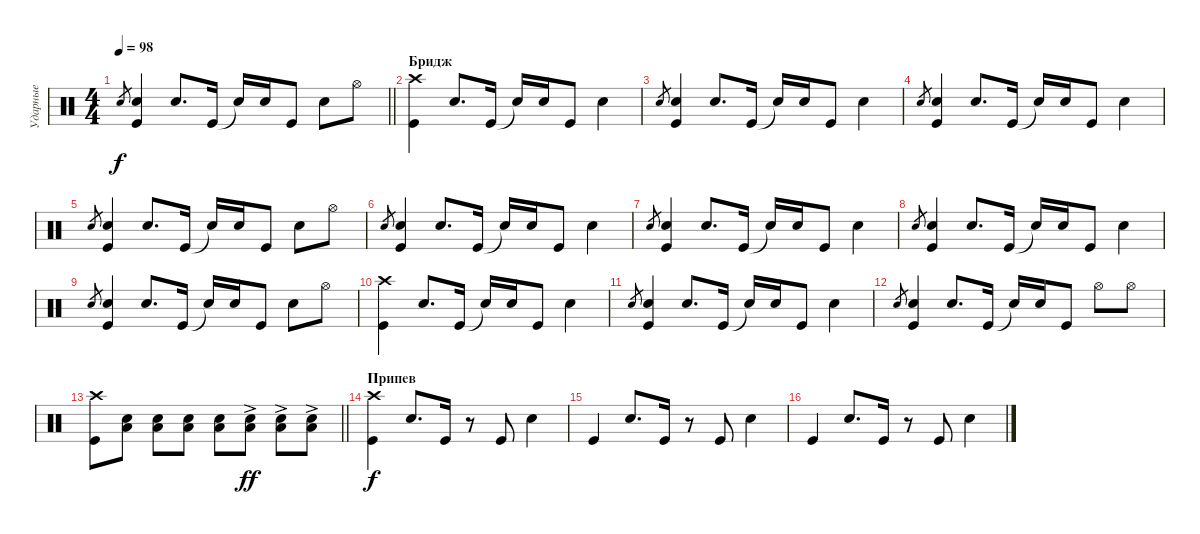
\track ("Ударные" "Ударные") {instrument percussion}
\staff {score}
\articulation defaults
\ts (4 4)
\tempo 98
\clef neutral
\barLineRight lightlight
\ks c "Snare (hit) 2"{sl x}.8{gr dy f}
("Snare (hit) 2" "Kick (hit)").4 "Snare (hit) 2".8{d} "Kick (hit)".16 "Snare (hit)"{t}.16 "Snare (hit) 2".16 "Kick (hit)".8 "Snare (hit) 2".8 "Hi-Hat (open)".8 |
\section ("" "Бридж")
("Crash high (hit)" "Kick (hit)").4 "Snare (hit) 2".8{d} "Kick (hit)".16 "Snare (hit)"{t}.16 "Snare (hit) 2".16 "Kick (hit)".8 "Snare (hit) 2".4 |
"Snare (hit) 2"{sl x}.8{gr} ("Snare (hit) 2" "Kick (hit)").4 "Snare (hit) 2".8{d} "Kick (hit)".16 "Snare (hit)"{t}.16 "Snare (hit) 2".16 "Kick (hit)".8 "Snare (hit) 2".4 |
"Snare (hit) 2"{sl x}.8{gr} ("Snare (hit) 2" "Kick (hit)").4 "Snare (hit) 2".8{d} "Kick (hit)".16 "Snare (hit)"{t}.16 "Snare (hit) 2".16 "Kick (hit)".8 "Snare (hit) 2".4 |
"Snare (hit) 2"{sl x}.8{gr} ("Snare (hit) 2" "Kick (hit)").4 "Snare (hit) 2".8{d} "Kick (hit)".16 "Snare (hit)"{t}.16 "Snare (hit) 2".16 "Kick (hit)".8 "Snare (hit) 2".8 "Hi-Hat (open)".8 |
"Snare (hit) 2"{sl x}.8{gr} ("Snare (hit) 2" "Kick (hit)").4 "Snare (hit) 2".8{d} "Kick (hit)".16 "Snare (hit)"{t}.16 "Snare (hit) 2".16 "Kick (hit)".8 "Snare (hit) 2".4 |
"Snare (hit) 2"{sl x}.8{gr} ("Snare (hit) 2" "Kick (hit)").4 "Snare (hit) 2".8{d} "Kick (hit)".16 "Snare (hit)"{t}.16 "Snare (hit) 2".16 "Kick (hit)".8 "Snare (hit) 2".4 |
"Snare (hit) 2"{sl x}.8{gr} ("Snare (hit) 2" "Kick (hit)").4 "Snare (hit) 2".8{d} "Kick (hit)".16 "Snare (hit)"{t}.16 "Snare (hit) 2".16 "Kick (hit)".8 "Snare (hit) 2".4 |
"Snare (hit) 2"{sl x}.8{gr} ("Snare (hit) 2" "Kick (hit)").4 "Snare (hit) 2".8{d} "Kick (hit)".16 "Snare (hit)"{t}.16 "Snare (hit) 2".16 "Kick (hit)".8 "Snare (hit) 2".8 "Hi-Hat (open)".8 |
("Crash high (hit)" "Kick (hit)").4 "Snare (hit) 2".8{d} "Kick (hit)".16 "Snare (hit)"{t}.16 "Snare (hit) 2".16 "Kick (hit)".8 "Snare (hit) 2".4 |
"Snare (hit) 2"{sl x}.8{gr} ("Snare (hit) 2" "Kick (hit)").4 "Snare (hit) 2".8{d} "Kick (hit)".16 "Snare (hit)"{t}.16 "Snare (hit) 2".16 "Kick (hit)".8 "Snare (hit) 2".4 |
"Snare (hit) 2"{sl x}.8{gr} ("Snare (hit) 2" "Kick (hit)").4 "Snare (hit) 2".8{d} "Kick (hit)".16 "Snare (hit)"{t}.16 "Snare (hit) 2".16 "Kick (hit)".8 "Hi-Hat (open)".8 "Hi-Hat (open)".8 |
\barLineRight lightlight
("Crash high (hit)" "Kick (hit)").8 ("Snare (hit) 2" "Low Tom (hit)").8{volume 5} ("Snare (hit) 2" "Low Tom (hit)").8{volume 13} ("Snare (hit) 2" "Low Tom (hit)").8 ("Snare (hit) 2" "Low Tom (hit)").8 ("Snare (hit) 2"{ac} "Low Tom (hit)"{ac}).8{dy ff} ("Snare (hit) 2"{ac} "Low Tom (hit)"{ac}).8 ("Snare (hit) 2"{ac} "Low Tom (hit)"{ac}).8 |
\section ("" "Припев")
("Crash high (hit)" "Kick (hit)").4{dy f} "Snare (hit) 2".8{d} "Kick (hit)".16 r.8 "Kick (hit)".8 "Snare (hit) 2".4 |
"Kick (hit)".4 "Snare (hit) 2".8{d} "Kick (hit)".16 r.8 "Kick (hit)".8 "Snare (hit) 2".4 |
"Kick (hit)".4 "Snare (hit) 2".8{d} "Kick (hit)".16 r.8 "Kick (hit)".8 "Snare (hit) 2".4
